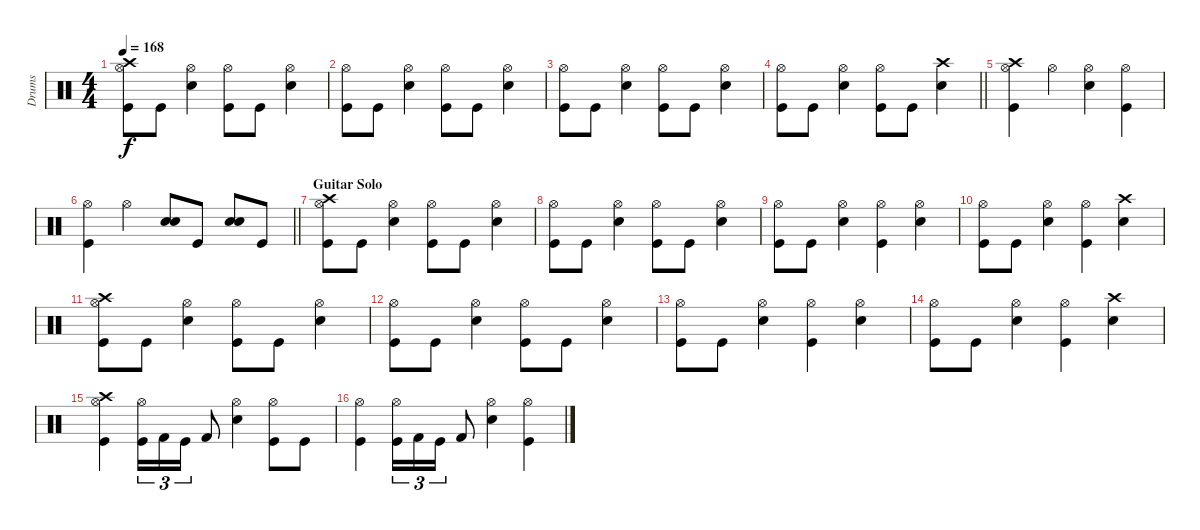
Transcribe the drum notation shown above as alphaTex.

\track ("Drums" "Drums") {instrument percussion}
\staff {score}
\articulation defaults
\ts (4 4)
\tempo 168
\clef neutral
\ks c
("Crash high (hit)" "Hi-Hat (open)" "Kick (hit)").8{dy f} "Kick (hit)".8 ("Hi-Hat (open)" "Snare (hit) 2").4 ("Hi-Hat (open)" "Kick (hit)").8 "Kick (hit)".8 ("Hi-Hat (open)" "Snare (hit) 2").4 |
("Hi-Hat (open)" "Kick (hit)").8 "Kick (hit)".8 ("Hi-Hat (open)" "Snare (hit) 2").4 ("Hi-Hat (open)" "Kick (hit)").8 "Kick (hit)".8 ("Hi-Hat (open)" "Snare (hit) 2").4 |
("Hi-Hat (open)" "Kick (hit)").8 "Kick (hit)".8 ("Hi-Hat (open)" "Snare (hit) 2").4 ("Hi-Hat (open)" "Kick (hit)").8 "Kick (hit)".8 ("Hi-Hat (open)" "Snare (hit) 2").4 |
\barLineRight lightlight
("Hi-Hat (open)" "Kick (hit)").8 "Kick (hit)".8 ("Hi-Hat (open)" "Snare (hit) 2").4 ("Hi-Hat (open)" "Kick (hit)").8 "Kick (hit)".8 ("Crash high (hit)" "Snare (hit) 2").4 |
("Crash high (hit)" "Hi-Hat (open)" "Kick (hit)").4 "Hi-Hat (open)".4 ("Hi-Hat (open)" "Snare (hit) 2").4 ("Hi-Hat (open)" "Kick (hit)").4 |
\barLineRight lightlight
("Hi-Hat (open)" "Kick (hit)").4 "Hi-Hat (open)".4 ("Snare (hit) 2" "Snare (hit) 2").8{bd 120} "Kick (hit)".8 ("Snare (hit) 2" "Snare (hit) 2").8{bd 120} "Kick (hit)".8 |
\section ("" "Guitar Solo")
("Crash high (hit)" "Hi-Hat (open)" "Kick (hit)").8 "Kick (hit)".8 ("Hi-Hat (open)" "Snare (hit) 2").4 ("Hi-Hat (open)" "Kick (hit)").8 "Kick (hit)".8 ("Hi-Hat (open)" "Snare (hit) 2").4 |
("Hi-Hat (open)" "Kick (hit)").8 "Kick (hit)".8 ("Hi-Hat (open)" "Snare (hit) 2").4 ("Hi-Hat (open)" "Kick (hit)").8 "Kick (hit)".8 ("Hi-Hat (open)" "Snare (hit) 2").4 |
("Hi-Hat (open)" "Kick (hit)").8 "Kick (hit)".8 ("Hi-Hat (open)" "Snare (hit) 2").4 ("Hi-Hat (open)" "Kick (hit)").4 ("Hi-Hat (open)" "Snare (hit) 2").4 |
("Hi-Hat (open)" "Kick (hit)").8 "Kick (hit)".8 ("Hi-Hat (open)" "Snare (hit) 2").4 ("Hi-Hat (open)" "Kick (hit)").4 ("Crash high (hit)" "Snare (hit) 2").4 |
("Crash high (hit)" "Hi-Hat (open)" "Kick (hit)").8 "Kick (hit)".8 ("Hi-Hat (open)" "Snare (hit) 2").4 ("Hi-Hat (open)" "Kick (hit)").8 "Kick (hit)".8 ("Hi-Hat (open)" "Snare (hit) 2").4 |
("Hi-Hat (open)" "Kick (hit)").8 "Kick (hit)".8 ("Hi-Hat (open)" "Snare (hit) 2").4 ("Hi-Hat (open)" "Kick (hit)").8 "Kick (hit)".8 ("Hi-Hat (open)" "Snare (hit) 2").4 |
("Hi-Hat (open)" "Kick (hit)").8 "Kick (hit)".8 ("Hi-Hat (open)" "Snare (hit) 2").4 ("Hi-Hat (open)" "Kick (hit)").4 ("Hi-Hat (open)" "Snare (hit) 2").4 |
("Hi-Hat (open)" "Kick (hit)").8 "Kick (hit)".8 ("Hi-Hat (open)" "Snare (hit) 2").4 ("Hi-Hat (open)" "Kick (hit)").4 ("Crash high (hit)" "Snare (hit) 2").4 |
("Crash high (hit)" "Hi-Hat (open)" "Kick (hit)").4 ("Hi-Hat (open)" "Kick (hit)").16{tu (3 2)} "Kick (hit) 2".16{tu (3 2)} "Kick (hit)".16{tu (3 2)} "Kick (hit) 2".8 ("Hi-Hat (open)" "Snare (hit) 2").4 ("Hi-Hat (open)" "Kick (hit)").8 "Kick (hit)".8 |
("Hi-Hat (open)" "Kick (hit)").4 ("Hi-Hat (open)" "Kick (hit)").16{tu (3 2)} "Kick (hit) 2".16{tu (3 2)} "Kick (hit)".16{tu (3 2)} "Kick (hit) 2".8 ("Hi-Hat (open)" "Snare (hit) 2").4 ("Hi-Hat (open)" "Kick (hit)").4
